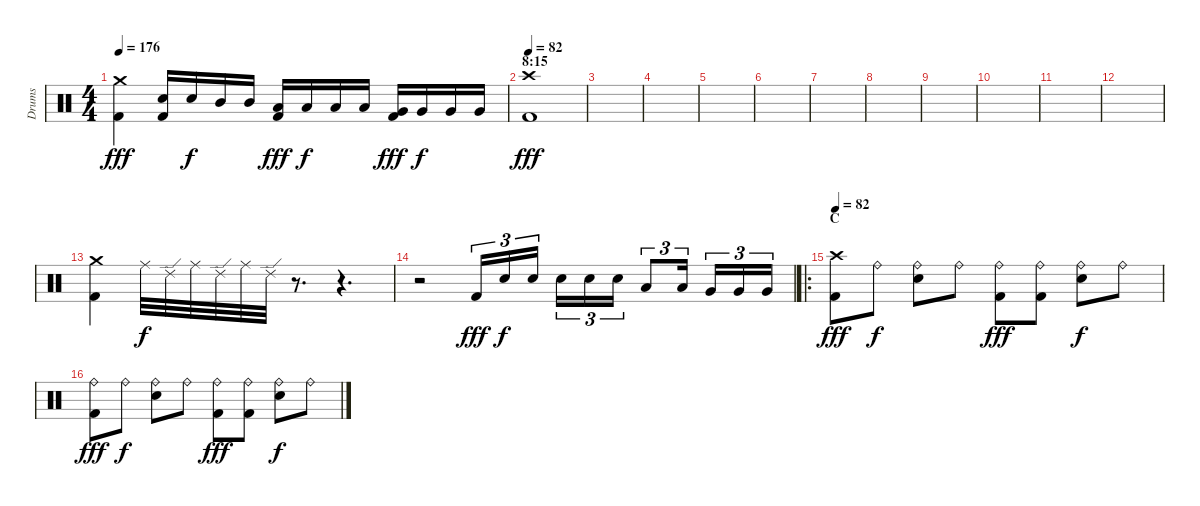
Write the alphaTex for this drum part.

\track ("Drums" "Drums") {instrument percussion}
\staff {score}
\articulation defaults
\ts (4 4)
\tempo 176
\clef neutral
\ks c
("Crash medium (hit)" "Kick (hit) 2").4{dy fff} ("Snare (hit) 2" "Kick (hit) 2").16 "Snare (hit) 2".16{dy f} "Mid Tom (hit)".16 "Mid Tom (hit)".16 ("Low Tom (hit)" "Kick (hit) 2").16{dy fff} "Low Tom (hit)".16{dy f} "Low Tom (hit)".16 "Low Tom (hit)".16 ("Very Low Tom (hit)" "Kick (hit) 2").16{dy fff} "Very Low Tom (hit)".16{dy f} "Very Low Tom (hit)".16 "Very Low Tom (hit)".16 |
\section ("" "8:15")
\tempo 82
("Crash high (hit)" "Kick (hit) 2").1{dy fff} |
|
|
|
|
|
|
|
|
|
|
("Crash medium (hit)" "Kick (hit) 2").4 "Ride (middle)".32{dy f} "Ride (edge) 2".32 "Ride (middle)".32 "Ride (edge) 2".32 "Ride (middle)".32 "Ride (edge) 2".32 r.8{d} r.4{d} |
r.2 "Kick (hit) 2".16{tu (3 2) dy fff} "Snare (hit) 2".16{tu (3 2) dy f} "Snare (hit) 2".16{tu (3 2)} "Snare (hit) 2".16{tu (3 2)} "Snare (hit) 2".16{tu (3 2)} "Snare (hit) 2".16{tu (3 2)} "Low Tom (hit)".8{tu (3 2)} "Low Tom (hit)".16{tu (3 2)} "Very Low Tom (hit)".16{tu (3 2)} "Very Low Tom (hit)".16{tu (3 2)} "Very Low Tom (hit)".16{tu (3 2)} |
\ro
\section ("" "C")
\tempo 82
("Crash high (hit)" "Kick (hit) 2").8{dy fff} "Ride (bell)".8{dy f} ("Ride (bell)" "Snare (hit) 2").8 "Ride (bell)".8 ("Ride (bell)" "Kick (hit) 2").8{dy fff} ("Ride (bell)" "Kick (hit) 2").8 ("Ride (bell)" "Snare (hit) 2").8{dy f} "Ride (bell)".8 |
("Ride (bell)" "Kick (hit) 2").8{dy fff} "Ride (bell)".8{dy f} ("Ride (bell)" "Snare (hit) 2").8 "Ride (bell)".8 ("Ride (bell)" "Kick (hit) 2").8{dy fff} ("Ride (bell)" "Kick (hit) 2").8 ("Ride (bell)" "Snare (hit) 2").8{dy f} "Ride (bell)".8
